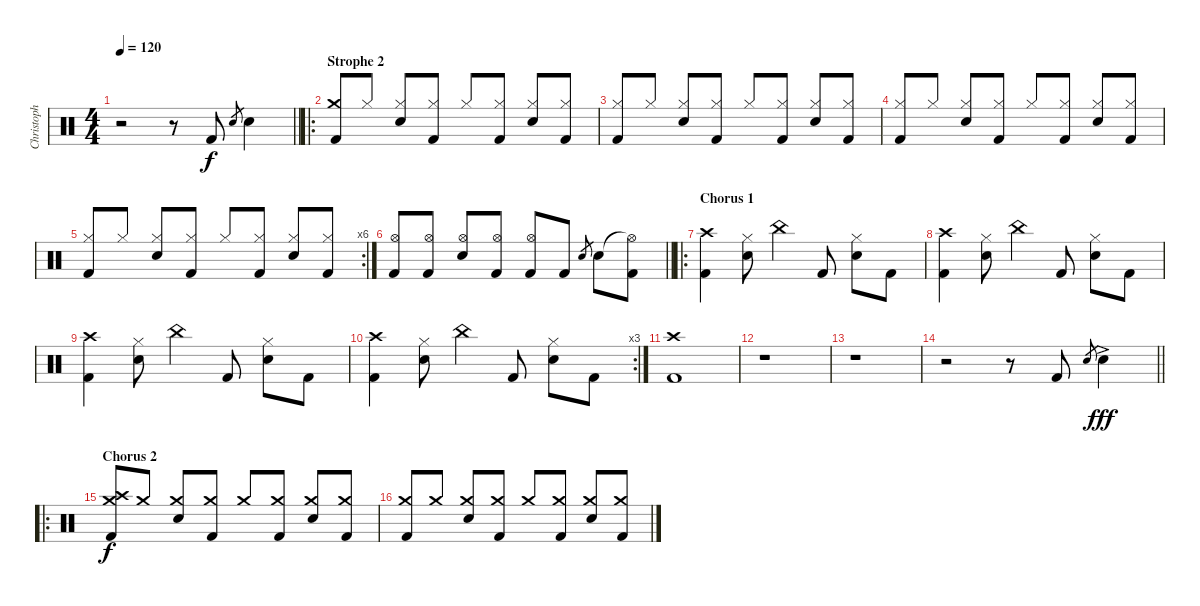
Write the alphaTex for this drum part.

\track ("Christoph" "Christoph") {instrument percussion}
\staff {score}
\articulation defaults
\ts (4 4)
\tempo 120
\clef neutral
\barLineRight lightlight
\ks c
r.2{dy f} r.8 "Kick (hit) 2".8 "Snare (hit) 2".8{gr} "Snare (hit) 2".4 |
\ro
\section ("" "Strophe 2")
("Crash medium (hit)" "Kick (hit) 2").8{beam Up} "Hi-Hat (closed)".8{beam Up} ("Hi-Hat (closed)" "Snare (hit) 2").8{beam Up} ("Hi-Hat (closed)" "Kick (hit) 2").8{beam Up} "Hi-Hat (closed)".8{beam Up} ("Hi-Hat (closed)" "Kick (hit) 2").8{beam Up} ("Hi-Hat (closed)" "Snare (hit) 2").8{beam Up} ("Hi-Hat (closed)" "Kick (hit) 2").8{beam Up} |
("Hi-Hat (closed)" "Kick (hit) 2").8{beam Up} "Hi-Hat (closed)".8{beam Up} ("Hi-Hat (closed)" "Snare (hit) 2").8{beam Up} ("Hi-Hat (closed)" "Kick (hit) 2").8{beam Up} "Hi-Hat (closed)".8{beam Up} ("Hi-Hat (closed)" "Kick (hit) 2").8{beam Up} ("Hi-Hat (closed)" "Snare (hit) 2").8{beam Up} ("Hi-Hat (closed)" "Kick (hit) 2").8{beam Up} |
("Hi-Hat (closed)" "Kick (hit) 2").8{beam Up} "Hi-Hat (closed)".8{beam Up} ("Hi-Hat (closed)" "Snare (hit) 2").8{beam Up} ("Hi-Hat (closed)" "Kick (hit) 2").8{beam Up} "Hi-Hat (closed)".8{beam Up} ("Hi-Hat (closed)" "Kick (hit) 2").8{beam Up} ("Hi-Hat (closed)" "Snare (hit) 2").8{beam Up} ("Hi-Hat (closed)" "Kick (hit) 2").8{beam Up} |
\rc 6
("Hi-Hat (closed)" "Kick (hit) 2").8{beam Up} "Hi-Hat (closed)".8{beam Up} ("Hi-Hat (closed)" "Snare (hit) 2").8{beam Up} ("Hi-Hat (closed)" "Kick (hit) 2").8{beam Up} "Hi-Hat (closed)".8{beam Up} ("Hi-Hat (closed)" "Kick (hit) 2").8{beam Up} ("Hi-Hat (closed)" "Snare (hit) 2").8{beam Up} ("Hi-Hat (closed)" "Kick (hit) 2").8{beam Up} |
\barLineRight lightlight
("Hi-Hat (open)" "Kick (hit) 2").8{beam Up} ("Hi-Hat (open)" "Kick (hit) 2").8{beam Up} ("Hi-Hat (open)" "Snare (hit) 2").8{beam Up} ("Hi-Hat (open)" "Kick (hit) 2").8{beam Up} ("Hi-Hat (open)" "Kick (hit) 2").8{beam Up} "Kick (hit) 2".8{beam Up} "Snare (hit) 2".8{gr} "Snare (hit) 2".8{beam Down} ("Hi-Hat (open)"{t} "Kick (hit) 2").8{beam Down} |
\ro
\section ("" "Chorus 1")
("Crash high (hit)" "Kick (hit) 2").4{beam Down} ("Hi-Hat (closed)" "Snare (hit) 2").8{beam Down} "China (hit)".4{beam Down} "Kick (hit) 2".8{beam Up} ("Hi-Hat (closed)" "Snare (hit) 2").8{beam Down} "Kick (hit) 2".8{beam Down} |
("Crash high (hit)" "Kick (hit) 2").4{beam Down} ("Hi-Hat (closed)" "Snare (hit) 2").8{beam Down} "China (hit)".4{beam Down} "Kick (hit) 2".8{beam Up} ("Hi-Hat (closed)" "Snare (hit) 2").8{beam Down} "Kick (hit) 2".8{beam Down} |
("Crash high (hit)" "Kick (hit) 2").4{beam Down} ("Hi-Hat (closed)" "Snare (hit) 2").8{beam Down} "China (hit)".4{beam Down} "Kick (hit) 2".8{beam Up} ("Hi-Hat (closed)" "Snare (hit) 2").8{beam Down} "Kick (hit) 2".8{beam Down} |
\rc 3
("Crash high (hit)" "Kick (hit) 2").4{beam Down} ("Hi-Hat (closed)" "Snare (hit) 2").8{beam Down} "China (hit)".4{beam Down} "Kick (hit) 2".8{beam Up} ("Hi-Hat (closed)" "Snare (hit) 2").8{beam Down} "Kick (hit) 2".8{beam Down} |
("Crash high (hit)" "Kick (hit) 2").1 |
r.1 |
r.1 |
\barLineRight lightlight
r.2 r.8 "Kick (hit) 2".8 "Snare (hit) 2".8{gr} "Snare (hit) 2"{ac}.4{dy fff} |
\ro
\section ("" "Chorus 2")
("Crash medium (hit)" "Crash high (hit)" "Kick (hit) 2").8{dy f beam Up} "Crash medium (hit)".8{beam Up} ("Crash medium (hit)" "Snare (hit) 2").8{beam Up} ("Crash medium (hit)" "Kick (hit) 2").8{beam Up} "Crash medium (hit)".8{beam Up} ("Crash medium (hit)" "Kick (hit) 2").8{beam Up} ("Crash medium (hit)" "Snare (hit) 2").8{beam Up} ("Crash medium (hit)" "Kick (hit) 2").8{beam Up} |
("Crash medium (hit)" "Kick (hit) 2").8{beam Up} "Crash medium (hit)".8{beam Up} ("Crash medium (hit)" "Snare (hit) 2").8{beam Up} ("Crash medium (hit)" "Kick (hit) 2").8{beam Up} "Crash medium (hit)".8{beam Up} ("Crash medium (hit)" "Kick (hit) 2").8{beam Up} ("Crash medium (hit)" "Snare (hit) 2").8{beam Up} ("Crash medium (hit)" "Kick (hit) 2").8{beam Up}
